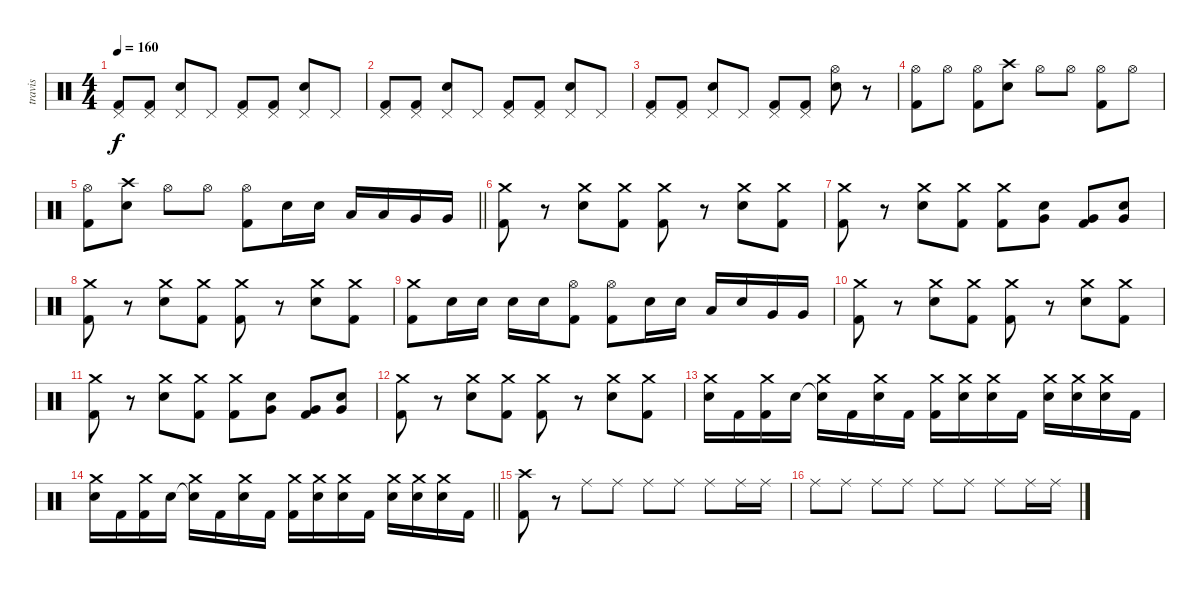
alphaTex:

\track ("travis" "travis") {instrument percussion}
\staff {score}
\articulation defaults
\ts (4 4)
\tempo 160
\clef neutral
\ks c
("Pedal Hi-Hat (hit)" "Kick (hit) 2").8{dy f} ("Pedal Hi-Hat (hit)" "Kick (hit) 2").8 ("Pedal Hi-Hat (hit)" "Snare (hit) 2").8 "Pedal Hi-Hat (hit)".8 ("Pedal Hi-Hat (hit)" "Kick (hit) 2").8 ("Pedal Hi-Hat (hit)" "Kick (hit) 2").8 ("Pedal Hi-Hat (hit)" "Snare (hit) 2").8 "Pedal Hi-Hat (hit)".8 |
("Pedal Hi-Hat (hit)" "Kick (hit) 2").8 ("Pedal Hi-Hat (hit)" "Kick (hit) 2").8 ("Pedal Hi-Hat (hit)" "Snare (hit) 2").8 "Pedal Hi-Hat (hit)".8 ("Pedal Hi-Hat (hit)" "Kick (hit) 2").8 ("Pedal Hi-Hat (hit)" "Kick (hit) 2").8 ("Pedal Hi-Hat (hit)" "Snare (hit) 2").8 "Pedal Hi-Hat (hit)".8 |
("Pedal Hi-Hat (hit)" "Kick (hit) 2").8 ("Pedal Hi-Hat (hit)" "Kick (hit) 2").8 ("Pedal Hi-Hat (hit)" "Snare (hit) 2").8 "Pedal Hi-Hat (hit)".8 ("Pedal Hi-Hat (hit)" "Kick (hit) 2").8 ("Pedal Hi-Hat (hit)" "Kick (hit) 2").8 ("Hi-Hat (open)" "Snare (hit) 2").8 r.8 |
("Hi-Hat (open)" "Kick (hit) 2").8 "Hi-Hat (open)".8 ("Hi-Hat (open)" "Kick (hit) 2").8 ("Crash high (hit)" "Snare (hit) 2").8 "Hi-Hat (open)".8 "Hi-Hat (open)".8 ("Hi-Hat (open)" "Kick (hit) 2").8 "Hi-Hat (open)".8 |
\barLineRight lightlight
("Hi-Hat (open)" "Kick (hit) 2").8 ("Crash high (hit)" "Snare (hit) 2").8 "Hi-Hat (open)".8 "Hi-Hat (open)".8 ("Hi-Hat (open)" "Kick (hit) 2").8 "Snare (hit) 2".16 "Snare (hit) 2".16 "Low Tom (hit)".16 "Low Tom (hit)".16 "Very Low Tom (hit)".16 "Very Low Tom (hit)".16 |
("Kick (hit) 2" "Crash medium (hit)").8 r.8 ("Snare (hit) 2" "Crash medium (hit)").8 ("Kick (hit) 2" "Crash medium (hit)").8 ("Kick (hit) 2" "Crash medium (hit)").8 r.8 ("Snare (hit) 2" "Crash medium (hit)").8 ("Kick (hit) 2" "Crash medium (hit)").8 |
("Kick (hit) 2" "Crash medium (hit)").8 r.8 ("Snare (hit) 2" "Crash medium (hit)").8 ("Kick (hit) 2" "Crash medium (hit)").8 ("Kick (hit) 2" "Crash medium (hit)").8 ("Snare (hit) 2" "Very Low Tom (hit)").8 ("Kick (hit) 2" "Very Low Tom (hit)").8 ("Snare (hit) 2" "Very Low Tom (hit)").8 |
("Kick (hit) 2" "Crash medium (hit)").8 r.8 ("Snare (hit) 2" "Crash medium (hit)").8 ("Kick (hit) 2" "Crash medium (hit)").8 ("Kick (hit) 2" "Crash medium (hit)").8 r.8 ("Snare (hit) 2" "Crash medium (hit)").8 ("Kick (hit) 2" "Crash medium (hit)").8 |
("Kick (hit) 2" "Crash medium (hit)").8 "Snare (hit) 2".16 "Snare (hit) 2".16 "Snare (hit) 2".16 "Snare (hit) 2".16 ("Hi-Hat (open)" "Kick (hit) 2").8 ("Hi-Hat (open)" "Kick (hit) 2").8 "Snare (hit) 2".16 "Snare (hit) 2".16 "Low Tom (hit)".16 "Snare (hit) 2".16 "Very Low Tom (hit)".16 "Very Low Tom (hit)".16 |
("Kick (hit) 2" "Crash medium (hit)").8 r.8 ("Snare (hit) 2" "Crash medium (hit)").8 ("Kick (hit) 2" "Crash medium (hit)").8 ("Kick (hit) 2" "Crash medium (hit)").8 r.8 ("Snare (hit) 2" "Crash medium (hit)").8 ("Kick (hit) 2" "Crash medium (hit)").8 |
("Kick (hit) 2" "Crash medium (hit)").8 r.8 ("Snare (hit) 2" "Crash medium (hit)").8 ("Kick (hit) 2" "Crash medium (hit)").8 ("Kick (hit) 2" "Crash medium (hit)").8 ("Snare (hit) 2" "Very Low Tom (hit)").8 ("Kick (hit) 2" "Very Low Tom (hit)").8 ("Snare (hit) 2" "Very Low Tom (hit)").8 |
("Kick (hit) 2" "Crash medium (hit)").8 r.8 ("Snare (hit) 2" "Crash medium (hit)").8 ("Kick (hit) 2" "Crash medium (hit)").8 ("Kick (hit) 2" "Crash medium (hit)").8 r.8 ("Snare (hit) 2" "Crash medium (hit)").8 ("Kick (hit) 2" "Crash medium (hit)").8 |
("Snare (hit) 2" "Crash medium (hit)").16 "Kick (hit) 2".16 ("Kick (hit) 2" "Crash medium (hit)").16 "Snare (hit) 2".16 ("Snare (hit)"{t} "Crash medium (hit)").16 "Kick (hit) 2".16 ("Snare (hit) 2" "Crash medium (hit)").16 "Kick (hit) 2".16 ("Kick (hit) 2" "Crash medium (hit)").16 ("Snare (hit) 2" "Crash medium (hit)").16 ("Snare (hit) 2" "Crash medium (hit)").16 "Kick (hit) 2".16 ("Snare (hit) 2" "Crash medium (hit)").16 ("Snare (hit) 2" "Crash medium (hit)").16 ("Snare (hit) 2" "Crash medium (hit)").16 "Kick (hit) 2".16 |
\barLineRight lightlight
("Snare (hit) 2" "Crash medium (hit)").16 "Kick (hit) 2".16 ("Kick (hit) 2" "Crash medium (hit)").16 "Snare (hit) 2".16 ("Snare (hit)"{t} "Crash medium (hit)").16 "Kick (hit) 2".16 ("Snare (hit) 2" "Crash medium (hit)").16 "Kick (hit) 2".16 ("Kick (hit) 2" "Crash medium (hit)").16 ("Snare (hit) 2" "Crash medium (hit)").16 ("Snare (hit) 2" "Crash medium (hit)").16 "Kick (hit) 2".16 ("Snare (hit) 2" "Crash medium (hit)").16 ("Snare (hit) 2" "Crash medium (hit)").16 ("Snare (hit) 2" "Crash medium (hit)").16 "Kick (hit) 2".16 |
("Crash high (hit)" "Kick (hit) 2").8 r.8 "Ride (middle)".8 "Ride (middle)".8 "Ride (middle)".8 "Ride (middle)".8 "Ride (middle)".8 "Ride (middle)".16 "Ride (middle)".16 |
"Ride (middle)".8 "Ride (middle)".8 "Ride (middle)".8 "Ride (middle)".8 "Ride (middle)".8 "Ride (middle)".8 "Ride (middle)".8 "Ride (middle)".16 "Ride (middle)".16
